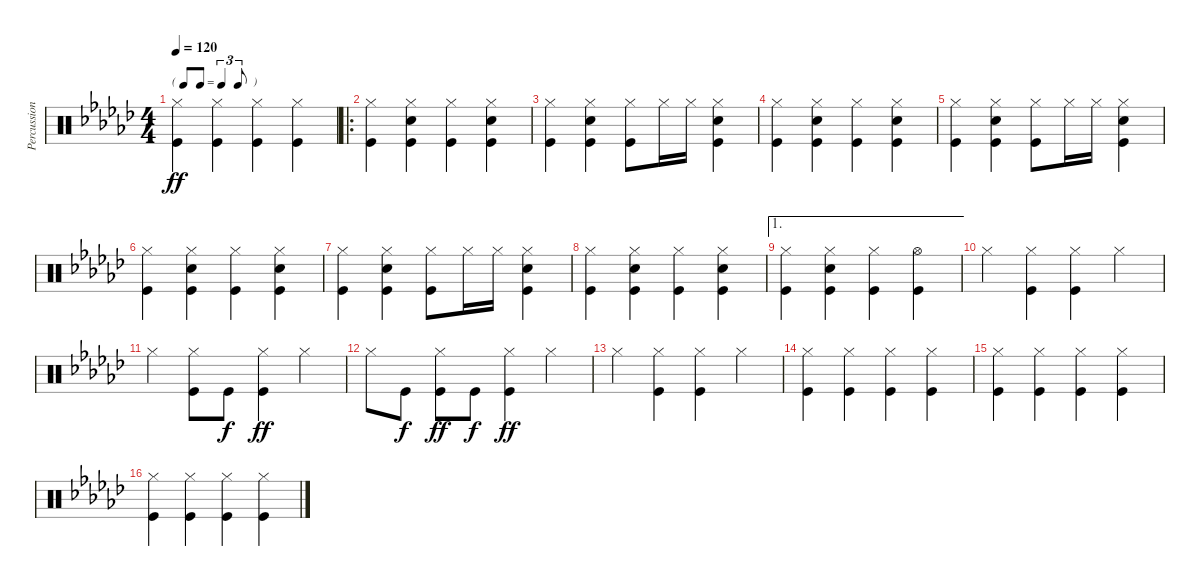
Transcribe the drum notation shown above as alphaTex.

\track ("Percussion" "Percussion") {instrument percussion}
\staff {score}
\articulation defaults
\ts (4 4)
\tf triplet8th
\tempo 120
\clef neutral
\ks gb
("Hi-Hat (closed)" "Kick (hit)").4{dy ff} ("Hi-Hat (closed)" "Kick (hit)").4 ("Hi-Hat (closed)" "Kick (hit)").4 ("Hi-Hat (closed)" "Kick (hit)").4 |
\ro
("Hi-Hat (closed)" "Kick (hit)").4 ("Hi-Hat (closed)" "Snare (hit) 2" "Kick (hit)").4 ("Hi-Hat (closed)" "Kick (hit)").4 ("Hi-Hat (closed)" "Snare (hit) 2" "Kick (hit)").4 |
("Hi-Hat (closed)" "Kick (hit)").4 ("Hi-Hat (closed)" "Snare (hit) 2" "Kick (hit)").4 ("Hi-Hat (closed)" "Kick (hit)").8 "Hi-Hat (closed)".16 "Hi-Hat (closed)".16 ("Hi-Hat (closed)" "Snare (hit) 2" "Kick (hit)").4 |
("Hi-Hat (closed)" "Kick (hit)").4 ("Hi-Hat (closed)" "Snare (hit) 2" "Kick (hit)").4 ("Hi-Hat (closed)" "Kick (hit)").4 ("Hi-Hat (closed)" "Snare (hit) 2" "Kick (hit)").4 |
("Hi-Hat (closed)" "Kick (hit)").4 ("Hi-Hat (closed)" "Snare (hit) 2" "Kick (hit)").4 ("Hi-Hat (closed)" "Kick (hit)").8 "Hi-Hat (closed)".16 "Hi-Hat (closed)".16 ("Hi-Hat (closed)" "Snare (hit) 2" "Kick (hit)").4 |
("Hi-Hat (closed)" "Kick (hit)").4 ("Hi-Hat (closed)" "Snare (hit) 2" "Kick (hit)").4 ("Hi-Hat (closed)" "Kick (hit)").4 ("Hi-Hat (closed)" "Snare (hit) 2" "Kick (hit)").4 |
("Hi-Hat (closed)" "Kick (hit)").4 ("Hi-Hat (closed)" "Snare (hit) 2" "Kick (hit)").4 ("Hi-Hat (closed)" "Kick (hit)").8 "Hi-Hat (closed)".16 "Hi-Hat (closed)".16 ("Hi-Hat (closed)" "Snare (hit) 2" "Kick (hit)").4 |
("Hi-Hat (closed)" "Kick (hit)").4 ("Hi-Hat (closed)" "Snare (hit) 2" "Kick (hit)").4 ("Hi-Hat (closed)" "Kick (hit)").4 ("Hi-Hat (closed)" "Snare (hit) 2" "Kick (hit)").4 |
\ae 1
("Hi-Hat (closed)" "Kick (hit)").4 ("Hi-Hat (closed)" "Snare (hit) 2" "Kick (hit)").4 ("Hi-Hat (closed)" "Kick (hit)").4 ("Hi-Hat (open)" "Kick (hit)").4 |
"Hi-Hat (closed)".4 ("Hi-Hat (closed)" "Kick (hit)").4 ("Hi-Hat (closed)" "Kick (hit)").4 "Hi-Hat (closed)".4 |
"Hi-Hat (closed)".4 ("Hi-Hat (closed)" "Kick (hit)").8 "Kick (hit)".8{dy f} ("Hi-Hat (closed)" "Kick (hit)").4{dy ff} "Hi-Hat (closed)".4 |
"Hi-Hat (closed)".8 "Kick (hit)".8{dy f} ("Hi-Hat (closed)" "Kick (hit)").8{dy ff} "Kick (hit)".8{dy f} ("Hi-Hat (closed)" "Kick (hit)").4{dy ff} "Hi-Hat (closed)".4 |
"Hi-Hat (closed)".4 ("Hi-Hat (closed)" "Kick (hit)").4 ("Hi-Hat (closed)" "Kick (hit)").4 "Hi-Hat (closed)".4 |
("Hi-Hat (closed)" "Kick (hit)").4 ("Hi-Hat (closed)" "Kick (hit)").4 ("Hi-Hat (closed)" "Kick (hit)").4 ("Hi-Hat (closed)" "Kick (hit)").4 |
("Hi-Hat (closed)" "Kick (hit)").4 ("Hi-Hat (closed)" "Kick (hit)").4 ("Hi-Hat (closed)" "Kick (hit)").4 ("Hi-Hat (closed)" "Kick (hit)").4 |
("Hi-Hat (closed)" "Kick (hit)").4 ("Hi-Hat (closed)" "Kick (hit)").4 ("Hi-Hat (closed)" "Kick (hit)").4 ("Hi-Hat (closed)" "Kick (hit)").4
